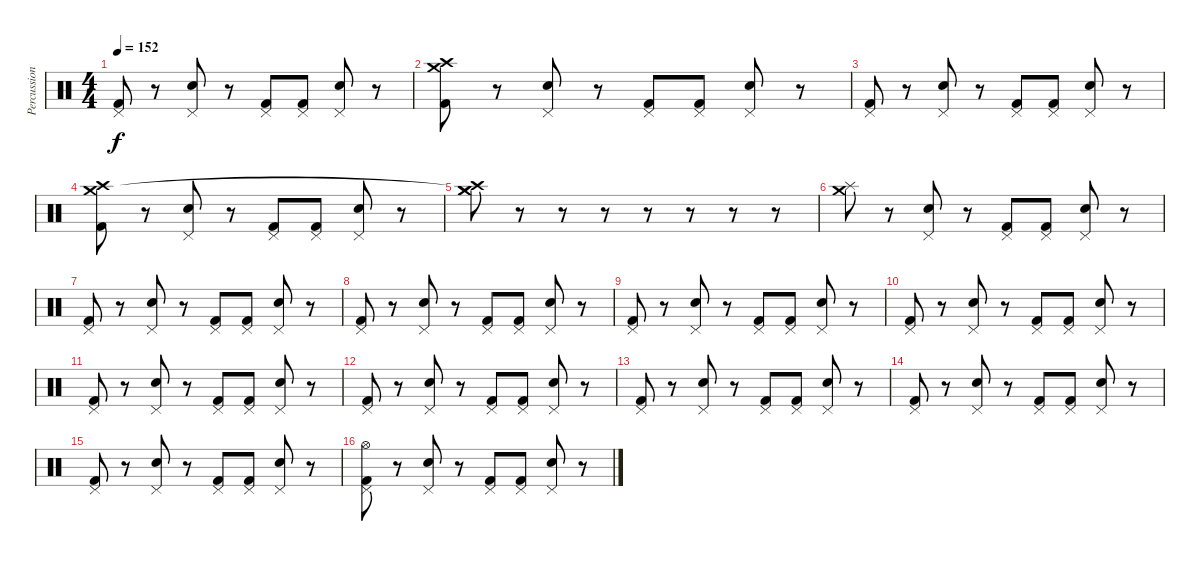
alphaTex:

\track ("Percussion" "Percussion") {instrument percussion}
\staff {score}
\articulation defaults
\ts (4 4)
\tempo 152
\clef neutral
\ks c
("Kick (hit) 2" "Pedal Hi-Hat (hit)").8{dy f} r.8 ("Snare (hit) 2" "Pedal Hi-Hat (hit)").8 r.8 ("Kick (hit) 2" "Pedal Hi-Hat (hit)").8 ("Kick (hit) 2" "Pedal Hi-Hat (hit)").8 ("Snare (hit) 2" "Pedal Hi-Hat (hit)").8 r.8 |
("Kick (hit) 2" "Crash high (hit)" "Crash medium (hit)").8 r.8 ("Snare (hit) 2" "Pedal Hi-Hat (hit)").8 r.8 ("Kick (hit) 2" "Pedal Hi-Hat (hit)").8 ("Kick (hit) 2" "Pedal Hi-Hat (hit)").8 ("Snare (hit) 2" "Pedal Hi-Hat (hit)").8 r.8 |
("Kick (hit) 2" "Pedal Hi-Hat (hit)").8 r.8 ("Snare (hit) 2" "Pedal Hi-Hat (hit)").8 r.8 ("Kick (hit) 2" "Pedal Hi-Hat (hit)").8 ("Kick (hit) 2" "Pedal Hi-Hat (hit)").8 ("Snare (hit) 2" "Pedal Hi-Hat (hit)").8 r.8 |
("Kick (hit) 2" "Crash high (hit)" "Crash medium (hit)").8 r.8 ("Snare (hit) 2" "Pedal Hi-Hat (hit)").8 r.8 ("Kick (hit) 2" "Pedal Hi-Hat (hit)").8 ("Kick (hit) 2" "Pedal Hi-Hat (hit)").8 ("Snare (hit) 2" "Pedal Hi-Hat (hit)").8 r.8 |
("Crash high (hit)" "Crash medium (hit)" "Crash medium (hit)"{t}).8 r.8{volume 0} r.8 r.8 r.8 r.8 r.8 r.8{volume 16} |
("Crash medium (hit)" "Splash (hit)").8 r.8 ("Snare (hit) 2" "Pedal Hi-Hat (hit)").8 r.8 ("Kick (hit) 2" "Pedal Hi-Hat (hit)").8 ("Kick (hit) 2" "Pedal Hi-Hat (hit)").8 ("Snare (hit) 2" "Pedal Hi-Hat (hit)").8 r.8 |
("Kick (hit) 2" "Pedal Hi-Hat (hit)").8 r.8 ("Snare (hit) 2" "Pedal Hi-Hat (hit)").8 r.8 ("Kick (hit) 2" "Pedal Hi-Hat (hit)").8 ("Kick (hit) 2" "Pedal Hi-Hat (hit)").8 ("Snare (hit) 2" "Pedal Hi-Hat (hit)").8 r.8 |
("Kick (hit) 2" "Pedal Hi-Hat (hit)").8 r.8 ("Snare (hit) 2" "Pedal Hi-Hat (hit)").8 r.8 ("Kick (hit) 2" "Pedal Hi-Hat (hit)").8 ("Kick (hit) 2" "Pedal Hi-Hat (hit)").8 ("Snare (hit) 2" "Pedal Hi-Hat (hit)").8 r.8 |
("Kick (hit) 2" "Pedal Hi-Hat (hit)").8 r.8 ("Snare (hit) 2" "Pedal Hi-Hat (hit)").8 r.8 ("Kick (hit) 2" "Pedal Hi-Hat (hit)").8 ("Kick (hit) 2" "Pedal Hi-Hat (hit)").8 ("Snare (hit) 2" "Pedal Hi-Hat (hit)").8 r.8 |
("Kick (hit) 2" "Pedal Hi-Hat (hit)").8 r.8 ("Snare (hit) 2" "Pedal Hi-Hat (hit)").8 r.8 ("Kick (hit) 2" "Pedal Hi-Hat (hit)").8 ("Kick (hit) 2" "Pedal Hi-Hat (hit)").8 ("Snare (hit) 2" "Pedal Hi-Hat (hit)").8 r.8 |
("Kick (hit) 2" "Pedal Hi-Hat (hit)").8 r.8 ("Snare (hit) 2" "Pedal Hi-Hat (hit)").8 r.8 ("Kick (hit) 2" "Pedal Hi-Hat (hit)").8 ("Kick (hit) 2" "Pedal Hi-Hat (hit)").8 ("Snare (hit) 2" "Pedal Hi-Hat (hit)").8 r.8 |
("Kick (hit) 2" "Pedal Hi-Hat (hit)").8 r.8 ("Snare (hit) 2" "Pedal Hi-Hat (hit)").8 r.8 ("Kick (hit) 2" "Pedal Hi-Hat (hit)").8 ("Kick (hit) 2" "Pedal Hi-Hat (hit)").8 ("Snare (hit) 2" "Pedal Hi-Hat (hit)").8 r.8 |
("Kick (hit) 2" "Pedal Hi-Hat (hit)").8 r.8 ("Snare (hit) 2" "Pedal Hi-Hat (hit)").8 r.8 ("Kick (hit) 2" "Pedal Hi-Hat (hit)").8 ("Kick (hit) 2" "Pedal Hi-Hat (hit)").8 ("Snare (hit) 2" "Pedal Hi-Hat (hit)").8 r.8 |
("Kick (hit) 2" "Pedal Hi-Hat (hit)").8 r.8 ("Snare (hit) 2" "Pedal Hi-Hat (hit)").8 r.8 ("Kick (hit) 2" "Pedal Hi-Hat (hit)").8 ("Kick (hit) 2" "Pedal Hi-Hat (hit)").8 ("Snare (hit) 2" "Pedal Hi-Hat (hit)").8 r.8 |
("Kick (hit) 2" "Pedal Hi-Hat (hit)").8 r.8 ("Snare (hit) 2" "Pedal Hi-Hat (hit)").8 r.8 ("Kick (hit) 2" "Pedal Hi-Hat (hit)").8 ("Kick (hit) 2" "Pedal Hi-Hat (hit)").8 ("Snare (hit) 2" "Pedal Hi-Hat (hit)").8 r.8 |
("Kick (hit) 2" "Pedal Hi-Hat (hit)" "Hi-Hat (open)").8 r.8 ("Snare (hit) 2" "Pedal Hi-Hat (hit)").8 r.8 ("Kick (hit) 2" "Pedal Hi-Hat (hit)").8 ("Kick (hit) 2" "Pedal Hi-Hat (hit)").8 ("Snare (hit) 2" "Pedal Hi-Hat (hit)").8 r.8
